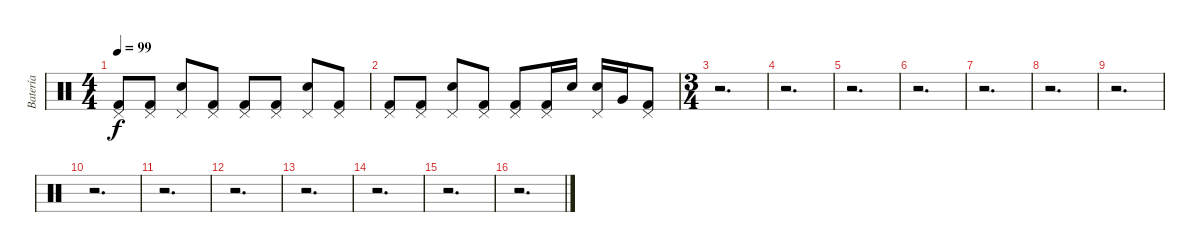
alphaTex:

\track ("Batería" "Batería") {instrument percussion}
\staff {score}
\articulation defaults
\ts (4 4)
\tempo 99
\clef neutral
\ks c
("Pedal Hi-Hat (hit)" "Kick (hit) 2").8{dy f} ("Pedal Hi-Hat (hit)" "Kick (hit) 2").8 ("Pedal Hi-Hat (hit)" "Snare (hit) 2").8 ("Pedal Hi-Hat (hit)" "Kick (hit) 2").8 ("Pedal Hi-Hat (hit)" "Kick (hit) 2").8 ("Pedal Hi-Hat (hit)" "Kick (hit) 2").8 ("Pedal Hi-Hat (hit)" "Snare (hit) 2").8 ("Pedal Hi-Hat (hit)" "Kick (hit) 2").8 |
("Pedal Hi-Hat (hit)" "Kick (hit) 2").8 ("Pedal Hi-Hat (hit)" "Kick (hit) 2").8 ("Pedal Hi-Hat (hit)" "Snare (hit) 2").8 ("Pedal Hi-Hat (hit)" "Kick (hit) 2").8 ("Pedal Hi-Hat (hit)" "Kick (hit) 2").8 ("Kick (hit) 2" "Pedal Hi-Hat (hit)").16 "Snare (hit) 2".16 ("Snare (hit) 2" "Pedal Hi-Hat (hit)").16 "Very Low Tom (hit)".16 ("Kick (hit) 2" "Pedal Hi-Hat (hit)").8 |
\ts (3 4)
r.2{d} |
r.2{d} |
r.2{d} |
r.2{d} |
r.2{d} |
r.2{d} |
r.2{d} |
r.2{d} |
r.2{d} |
r.2{d} |
r.2{d} |
r.2{d} |
r.2{d} |
r.2{d}
